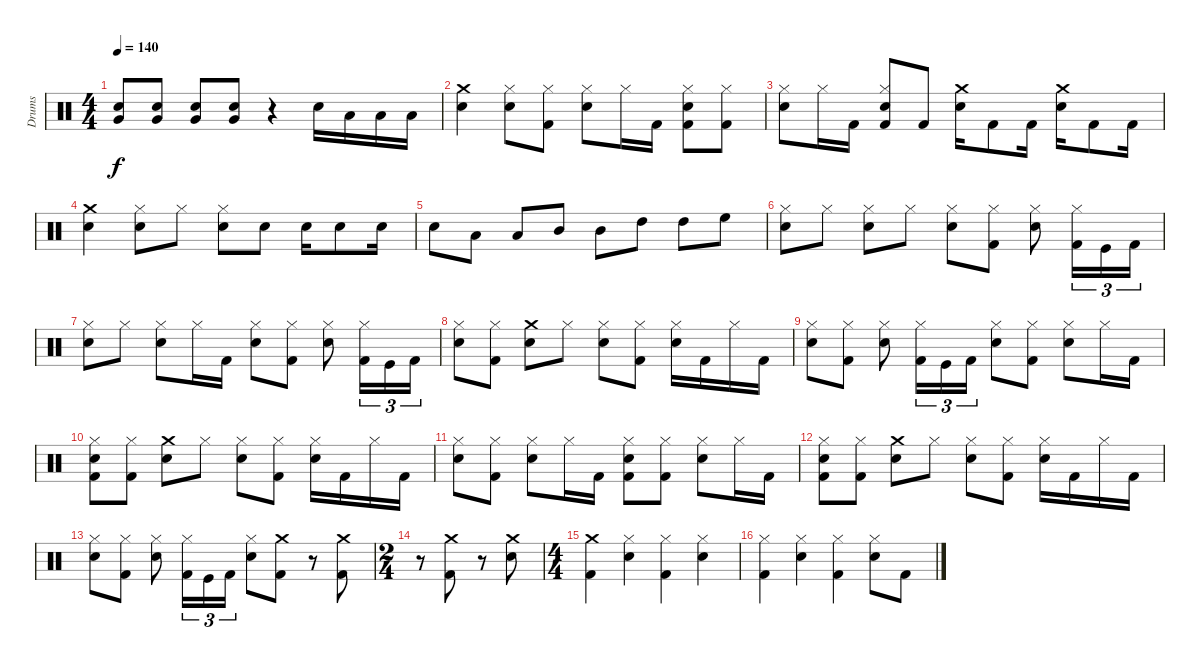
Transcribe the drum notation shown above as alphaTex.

\track ("Drums" "Drums") {instrument percussion}
\staff {score}
\articulation defaults
\ts (4 4)
\tempo 140
\clef neutral
\ks c
("Very Low Tom (hit)" "Snare (hit) 2").8{dy f} ("Very Low Tom (hit)" "Snare (hit) 2").8 ("Very Low Tom (hit)" "Snare (hit) 2").8 ("Very Low Tom (hit)" "Snare (hit) 2").8 r.4 "Snare (hit) 2".16 "Low Tom (hit)".16 "Low Tom (hit)".16 "Low Tom (hit)".16 |
("Snare (hit) 2" "Crash medium (hit)").4 ("Hi-Hat (closed)" "Snare (hit) 2").8 ("Kick (hit) 2" "Hi-Hat (closed)").8 ("Hi-Hat (closed)" "Snare (hit) 2").8 "Hi-Hat (closed)".16 "Kick (hit) 2".16 ("Kick (hit) 2" "Snare (hit) 2" "Hi-Hat (closed)").8 ("Hi-Hat (closed)" "Kick (hit) 2").8 |
("Hi-Hat (closed)" "Snare (hit) 2").8 "Hi-Hat (closed)".16 "Kick (hit) 2".16 ("Kick (hit) 2" "Snare (hit) 2" "Hi-Hat (closed)").8 "Kick (hit) 2".8 ("Snare (hit) 2" "Crash medium (hit)").16 "Kick (hit) 2".8 "Kick (hit) 2".16 ("Snare (hit) 2" "Crash medium (hit)").16 "Kick (hit) 2".8 "Kick (hit) 2".16 |
("Crash medium (hit)" "Snare (hit) 2").4 ("Hi-Hat (closed)" "Snare (hit) 2").8 "Hi-Hat (closed)".8 ("Snare (hit) 2" "Hi-Hat (closed)").8 "Snare (hit) 2".8 "Snare (hit) 2".16 "Snare (hit) 2".8 "Snare (hit) 2".16 |
"Snare (hit) 2".8 "Low Tom (hit)".8 "Low Tom (hit)".8 "Mid Tom (hit)".8 "Mid Tom (hit)".8 "High Tom (hit)".8 "High Tom (hit)".8 "High Floor Tom (hit)".8 |
("Hi-Hat (closed)" "Snare (hit) 2").8 "Hi-Hat (closed)".8 ("Snare (hit) 2" "Hi-Hat (closed)").8 "Hi-Hat (closed)".8 ("Snare (hit) 2" "Hi-Hat (closed)").8 ("Kick (hit) 2" "Hi-Hat (closed)").8 ("Snare (hit) 2" "Hi-Hat (closed)").8 ("Kick (hit) 2" "Hi-Hat (closed)").16{tu (3 2)} "Kick (hit)".16{tu (3 2)} "Kick (hit) 2".16{tu (3 2)} |
("Hi-Hat (closed)" "Snare (hit) 2").8 "Hi-Hat (closed)".8 ("Snare (hit) 2" "Hi-Hat (closed)").8 "Hi-Hat (closed)".16 "Kick (hit) 2".16 ("Snare (hit) 2" "Hi-Hat (closed)").8 ("Kick (hit) 2" "Hi-Hat (closed)").8 ("Snare (hit) 2" "Hi-Hat (closed)").8 ("Kick (hit) 2" "Hi-Hat (closed)").16{tu (3 2)} "Kick (hit)".16{tu (3 2)} "Kick (hit) 2".16{tu (3 2)} |
("Hi-Hat (closed)" "Snare (hit) 2").8 ("Kick (hit) 2" "Hi-Hat (closed)").8 ("Crash medium (hit)" "Snare (hit) 2").8 "Hi-Hat (closed)".8 ("Snare (hit) 2" "Hi-Hat (closed)").8 ("Kick (hit) 2" "Hi-Hat (closed)").8 ("Snare (hit) 2" "Hi-Hat (closed)").16 "Kick (hit) 2".16 "Hi-Hat (closed)".16 "Kick (hit) 2".16 |
("Snare (hit) 2" "Hi-Hat (closed)").8 ("Hi-Hat (closed)" "Kick (hit) 2").8 ("Snare (hit) 2" "Hi-Hat (closed)").8 ("Hi-Hat (closed)" "Kick (hit) 2").16{tu (3 2)} "Kick (hit)".16{tu (3 2)} "Kick (hit) 2".16{tu (3 2)} ("Snare (hit) 2" "Hi-Hat (closed)").8 ("Kick (hit) 2" "Hi-Hat (closed)").8 ("Hi-Hat (closed)" "Snare (hit) 2").8 "Hi-Hat (closed)".16 "Kick (hit) 2".16 |
("Kick (hit) 2" "Snare (hit) 2" "Hi-Hat (closed)").8 ("Kick (hit) 2" "Hi-Hat (closed)").8 ("Crash medium (hit)" "Snare (hit) 2").8 "Hi-Hat (closed)".8 ("Snare (hit) 2" "Hi-Hat (closed)").8 ("Kick (hit) 2" "Hi-Hat (closed)").8 ("Hi-Hat (closed)" "Snare (hit) 2").16 "Kick (hit) 2".16 "Hi-Hat (closed)".16 "Kick (hit) 2".16 |
("Hi-Hat (closed)" "Snare (hit) 2").8 ("Kick (hit) 2" "Hi-Hat (closed)").8 ("Snare (hit) 2" "Hi-Hat (closed)").8 "Hi-Hat (closed)".16 "Kick (hit) 2".16 ("Kick (hit) 2" "Snare (hit) 2" "Hi-Hat (closed)").8 ("Kick (hit) 2" "Hi-Hat (closed)").8 ("Snare (hit) 2" "Hi-Hat (closed)").8 "Hi-Hat (closed)".16 "Kick (hit) 2".16 |
("Kick (hit) 2" "Snare (hit) 2" "Hi-Hat (closed)").8 ("Kick (hit) 2" "Hi-Hat (closed)").8 ("Crash medium (hit)" "Snare (hit) 2").8 "Hi-Hat (closed)".8 ("Snare (hit) 2" "Hi-Hat (closed)").8 ("Kick (hit) 2" "Hi-Hat (closed)").8 ("Hi-Hat (closed)" "Snare (hit) 2").16 "Kick (hit) 2".16 "Hi-Hat (closed)".16 "Kick (hit) 2".16 |
("Snare (hit) 2" "Hi-Hat (closed)").8 ("Hi-Hat (closed)" "Kick (hit) 2").8 ("Snare (hit) 2" "Hi-Hat (closed)").8 ("Hi-Hat (closed)" "Kick (hit) 2").16{tu (3 2)} "Kick (hit)".16{tu (3 2)} "Kick (hit) 2".16{tu (3 2)} ("Hi-Hat (closed)" "Snare (hit) 2").8 ("Kick (hit) 2" "Crash medium (hit)").8 r.8 ("Crash medium (hit)" "Kick (hit) 2").8 |
\ts (2 4)
r.8 ("Kick (hit) 2" "Crash medium (hit)").8 r.8 ("Snare (hit) 2" "Crash medium (hit)").8 |
\ts (4 4)
("Kick (hit) 2" "Crash medium (hit)").4 ("Hi-Hat (closed)" "Snare (hit) 2").4 ("Hi-Hat (closed)" "Kick (hit) 2").4 ("Snare (hit) 2" "Hi-Hat (closed)").4 |
("Hi-Hat (closed)" "Kick (hit) 2").4 ("Hi-Hat (closed)" "Snare (hit) 2").4 ("Hi-Hat (closed)" "Kick (hit) 2").4 ("Hi-Hat (closed)" "Snare (hit) 2").8 "Kick (hit) 2".8
